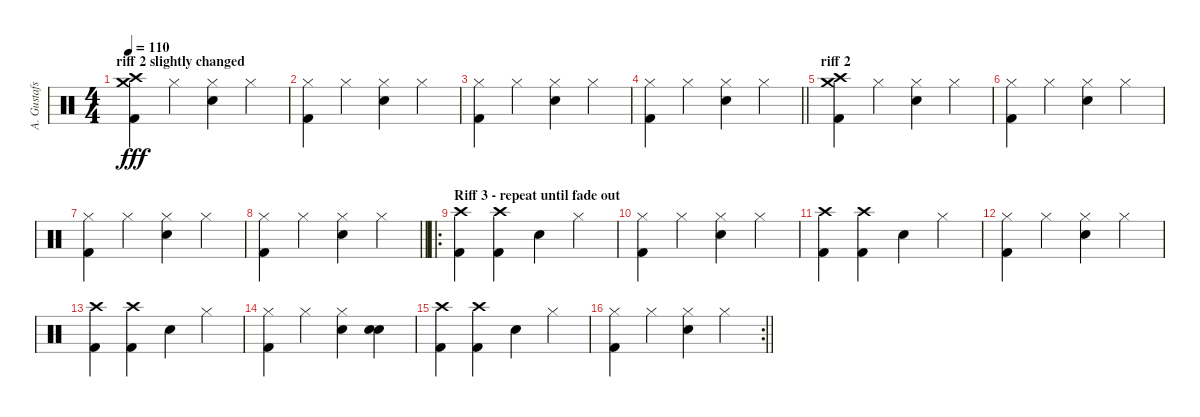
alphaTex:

\track ("A. Gustafsson" "A. Gustafs") {instrument percussion}
\staff {score}
\articulation defaults
\ts (4 4)
\section ("" "riff 2 slightly changed")
\tempo 110
\clef neutral
\ks c
("Crash high (hit)" "Crash medium (hit)" "Kick (hit) 2").4{dy fff} "Hi-Hat (closed)".4 ("Hi-Hat (closed)" "Snare (hit) 2").4 "Hi-Hat (closed)".4 |
("Hi-Hat (closed)" "Kick (hit) 2").4 "Hi-Hat (closed)".4 ("Hi-Hat (closed)" "Snare (hit) 2").4 "Hi-Hat (closed)".4 |
("Hi-Hat (closed)" "Kick (hit) 2").4 "Hi-Hat (closed)".4 ("Hi-Hat (closed)" "Snare (hit) 2").4 "Hi-Hat (closed)".4 |
\barLineRight lightlight
("Hi-Hat (closed)" "Kick (hit) 2").4 "Hi-Hat (closed)".4 ("Hi-Hat (closed)" "Snare (hit) 2").4 "Hi-Hat (closed)".4 |
\section ("" "riff 2")
("Crash high (hit)" "Crash medium (hit)" "Kick (hit) 2").4 "Hi-Hat (closed)".4 ("Hi-Hat (closed)" "Snare (hit) 2").4 "Hi-Hat (closed)".4 |
("Hi-Hat (closed)" "Kick (hit) 2").4 "Hi-Hat (closed)".4 ("Hi-Hat (closed)" "Snare (hit) 2").4 "Hi-Hat (closed)".4 |
("Hi-Hat (closed)" "Kick (hit) 2").4 "Hi-Hat (closed)".4 ("Hi-Hat (closed)" "Snare (hit) 2").4 "Hi-Hat (closed)".4 |
\barLineRight lightlight
("Hi-Hat (closed)" "Kick (hit) 2").4 "Hi-Hat (closed)".4 ("Hi-Hat (closed)" "Snare (hit) 2").4 "Hi-Hat (closed)".4 |
\ro
\section ("" "Riff 3 - repeat until fade out")
("Crash high (hit)" "Kick (hit) 2").4 ("Crash high (hit)" "Kick (hit) 2").4 "Snare (hit) 2".4 "Hi-Hat (closed)".4 |
("Hi-Hat (closed)" "Kick (hit) 2").4 "Hi-Hat (closed)".4 ("Hi-Hat (closed)" "Snare (hit) 2").4 "Hi-Hat (closed)".4 |
("Crash high (hit)" "Kick (hit) 2").4 ("Crash high (hit)" "Kick (hit) 2").4 "Snare (hit) 2".4 "Hi-Hat (closed)".4 |
("Hi-Hat (closed)" "Kick (hit) 2").4 "Hi-Hat (closed)".4 ("Hi-Hat (closed)" "Snare (hit) 2").4 "Hi-Hat (closed)".4 |
("Crash high (hit)" "Kick (hit) 2").4 ("Crash high (hit)" "Kick (hit) 2").4 "Snare (hit) 2".4 "Hi-Hat (closed)".4 |
("Hi-Hat (closed)" "Kick (hit) 2").4 "Hi-Hat (closed)".4 ("Hi-Hat (closed)" "Snare (hit) 2").4 ("Snare (hit) 2" "Snare (hit) 2").4 |
("Crash high (hit)" "Kick (hit) 2").4 ("Crash high (hit)" "Kick (hit) 2").4 "Snare (hit) 2".4 "Hi-Hat (closed)".4 |
\rc 2
\barLineRight lightlight
("Hi-Hat (closed)" "Kick (hit) 2").4 "Hi-Hat (closed)".4 ("Hi-Hat (closed)" "Snare (hit) 2").4 "Hi-Hat (closed)".4
